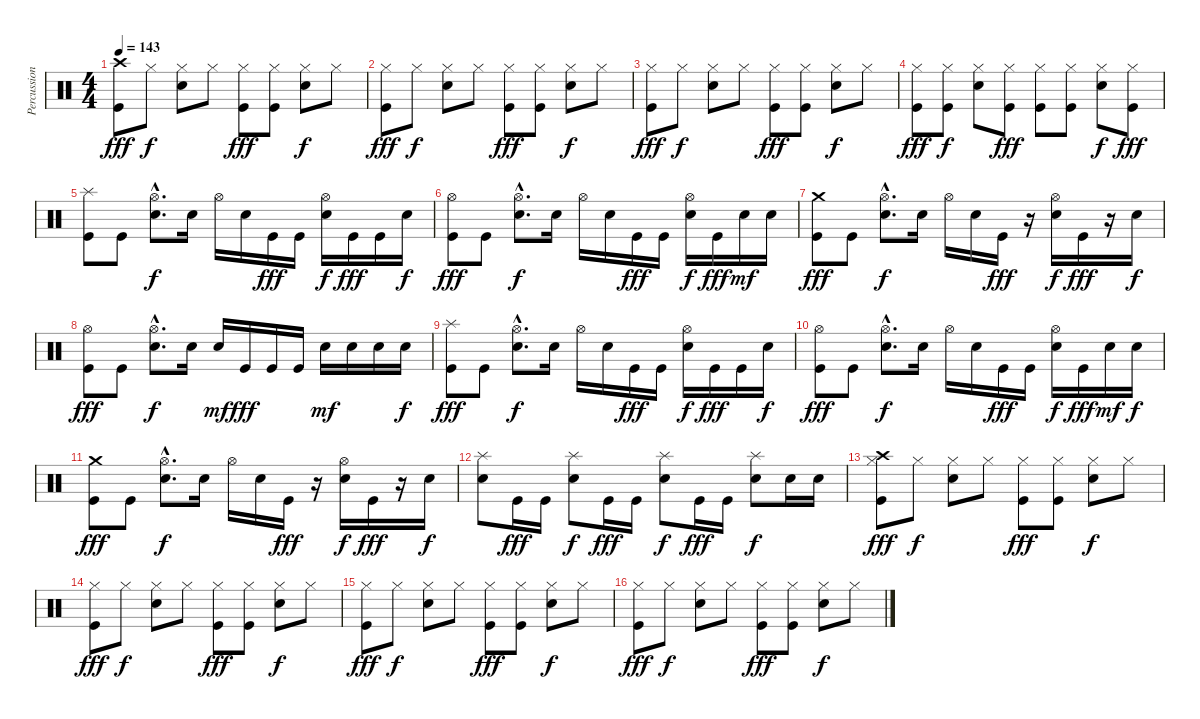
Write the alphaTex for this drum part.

\track ("Percussion" "Percussion") {instrument percussion}
\staff {score}
\articulation defaults
\ts (4 4)
\tempo 143
\clef neutral
\ks c
("Crash high (hit)" "Kick (hit)").8{dy fff} "Hi-Hat (closed)".8{dy f} ("Electric Snare (hit)" "Hi-Hat (closed)").8 "Hi-Hat (closed)".8 ("Kick (hit)" "Hi-Hat (closed)").8{dy fff} ("Kick (hit)" "Hi-Hat (closed)").8 ("Electric Snare (hit)" "Hi-Hat (closed)").8{dy f} "Hi-Hat (closed)".8 |
("Kick (hit)" "Hi-Hat (closed)").8{dy fff} "Hi-Hat (closed)".8{dy f} ("Electric Snare (hit)" "Hi-Hat (closed)").8 "Hi-Hat (closed)".8 ("Kick (hit)" "Hi-Hat (closed)").8{dy fff} ("Kick (hit)" "Hi-Hat (closed)").8 ("Electric Snare (hit)" "Hi-Hat (closed)").8{dy f} "Hi-Hat (closed)".8 |
("Kick (hit)" "Hi-Hat (closed)").8{dy fff} "Hi-Hat (closed)".8{dy f} ("Electric Snare (hit)" "Hi-Hat (closed)").8 "Hi-Hat (closed)".8 ("Kick (hit)" "Hi-Hat (closed)").8{dy fff} ("Kick (hit)" "Hi-Hat (closed)").8 ("Electric Snare (hit)" "Hi-Hat (closed)").8{dy f} "Hi-Hat (closed)".8 |
("Kick (hit)" "Hi-Hat (closed)").8{dy fff} ("Kick (hit)" "Hi-Hat (closed)").8{dy f} ("Electric Snare (hit)" "Hi-Hat (closed)").8 ("Kick (hit)" "Hi-Hat (closed)").8{dy fff} ("Kick (hit)" "Hi-Hat (closed)").8 ("Kick (hit)" "Hi-Hat (closed)").8 ("Electric Snare (hit)" "Hi-Hat (closed)").8{dy f} ("Kick (hit)" "Hi-Hat (closed)").8{dy fff} |
("Splash (hit)" "Kick (hit)").8 "Kick (hit)".8 ("Hi-Hat (open)"{hac} "Electric Snare (hit)"{hac}).8{d dy f} "Electric Snare (hit)".16 "Hi-Hat (open)".16 "Electric Snare (hit)".16 "Kick (hit)".16{dy fff} "Kick (hit)".16 ("Hi-Hat (open)" "Electric Snare (hit)").16{dy f} "Kick (hit)".16{dy fff} "Kick (hit)".16 "Electric Snare (hit)".16{dy f} |
("Hi-Hat (open)" "Kick (hit)").8{dy fff} "Kick (hit)".8 ("Hi-Hat (open)"{hac} "Electric Snare (hit)"{hac}).8{d dy f} "Electric Snare (hit)".16 "Hi-Hat (open)".16 "Electric Snare (hit)".16 "Kick (hit)".16{dy fff} "Kick (hit)".16 ("Hi-Hat (open)" "Electric Snare (hit)").16{dy f} "Kick (hit)".16{dy fff} "Electric Snare (hit)".16{dy mf} "Electric Snare (hit)".16 |
("Crash medium (hit)" "Kick (hit)").8{dy fff} "Kick (hit)".8 ("Hi-Hat (open)"{hac} "Electric Snare (hit)"{hac}).8{d dy f} "Electric Snare (hit)".16 "Hi-Hat (open)".16 "Electric Snare (hit)".16 "Kick (hit)".16{dy fff} r.16 ("Hi-Hat (open)" "Electric Snare (hit)").16{dy f} "Kick (hit)".16{dy fff} r.16 "Electric Snare (hit)".16{dy f} |
("Hi-Hat (open)" "Kick (hit)").8{dy fff} "Kick (hit)".8 ("Hi-Hat (open)"{hac} "Electric Snare (hit)"{hac}).8{d dy f} "Electric Snare (hit)".16 "Electric Snare (hit)".16{dy mf} "Kick (hit)".16{dy fff} "Kick (hit)".16 "Kick (hit)".16 "Electric Snare (hit)".16{dy mf} "Electric Snare (hit)".16 "Electric Snare (hit)".16 "Electric Snare (hit)".16{dy f} |
("Splash (hit)" "Kick (hit)").8{dy fff} "Kick (hit)".8 ("Hi-Hat (open)"{hac} "Electric Snare (hit)"{hac}).8{d dy f} "Electric Snare (hit)".16 "Hi-Hat (open)".16 "Electric Snare (hit)".16 "Kick (hit)".16{dy fff} "Kick (hit)".16 ("Hi-Hat (open)" "Electric Snare (hit)").16{dy f} "Kick (hit)".16{dy fff} "Kick (hit)".16 "Electric Snare (hit)".16{dy f} |
("Hi-Hat (open)" "Kick (hit)").8{dy fff} "Kick (hit)".8 ("Hi-Hat (open)"{hac} "Electric Snare (hit)"{hac}).8{d dy f} "Electric Snare (hit)".16 "Hi-Hat (open)".16 "Electric Snare (hit)".16 "Kick (hit)".16{dy fff} "Kick (hit)".16 ("Hi-Hat (open)" "Electric Snare (hit)").16{dy f} "Kick (hit)".16{dy fff} "Electric Snare (hit)".16{dy mf} "Electric Snare (hit)".16{dy f} |
("Crash medium (hit)" "Kick (hit)").8{dy fff} "Kick (hit)".8 ("Hi-Hat (open)"{hac} "Electric Snare (hit)"{hac}).8{d dy f} "Electric Snare (hit)".16 "Hi-Hat (open)".16 "Electric Snare (hit)".16 "Kick (hit)".16{dy fff} r.16 ("Hi-Hat (open)" "Electric Snare (hit)").16{dy f} "Kick (hit)".16{dy fff} r.16 "Electric Snare (hit)".16{dy f} |
("Splash (hit)" "Electric Snare (hit)").8 "Kick (hit)".16{dy fff} "Kick (hit)".16 ("Splash (hit)" "Electric Snare (hit)").8{dy f} "Kick (hit)".16{dy fff} "Kick (hit)".16 ("Splash (hit)" "Electric Snare (hit)").8{dy f} "Kick (hit)".16{dy fff} "Kick (hit)".16 ("Splash (hit)" "Electric Snare (hit)").8{dy f} "Electric Snare (hit)".16 "Electric Snare (hit)".16 |
("Crash high (hit)" "Kick (hit)" "Hi-Hat (closed)").8{dy fff} "Hi-Hat (closed)".8{dy f} ("Electric Snare (hit)" "Hi-Hat (closed)").8 "Hi-Hat (closed)".8 ("Kick (hit)" "Hi-Hat (closed)").8{dy fff} ("Kick (hit)" "Hi-Hat (closed)").8 ("Electric Snare (hit)" "Hi-Hat (closed)").8{dy f} "Hi-Hat (closed)".8 |
("Kick (hit)" "Hi-Hat (closed)").8{dy fff} "Hi-Hat (closed)".8{dy f} ("Electric Snare (hit)" "Hi-Hat (closed)").8 "Hi-Hat (closed)".8 ("Kick (hit)" "Hi-Hat (closed)").8{dy fff} ("Kick (hit)" "Hi-Hat (closed)").8 ("Electric Snare (hit)" "Hi-Hat (closed)").8{dy f} "Hi-Hat (closed)".8 |
("Kick (hit)" "Hi-Hat (closed)").8{dy fff} "Hi-Hat (closed)".8{dy f} ("Electric Snare (hit)" "Hi-Hat (closed)").8 "Hi-Hat (closed)".8 ("Kick (hit)" "Hi-Hat (closed)").8{dy fff} ("Kick (hit)" "Hi-Hat (closed)").8 ("Electric Snare (hit)" "Hi-Hat (closed)").8{dy f} "Hi-Hat (closed)".8 |
("Kick (hit)" "Hi-Hat (closed)").8{dy fff} "Hi-Hat (closed)".8{dy f} ("Electric Snare (hit)" "Hi-Hat (closed)").8 "Hi-Hat (closed)".8 ("Kick (hit)" "Hi-Hat (closed)").8{dy fff} ("Kick (hit)" "Hi-Hat (closed)").8 ("Electric Snare (hit)" "Hi-Hat (closed)").8{dy f} "Hi-Hat (closed)".8
